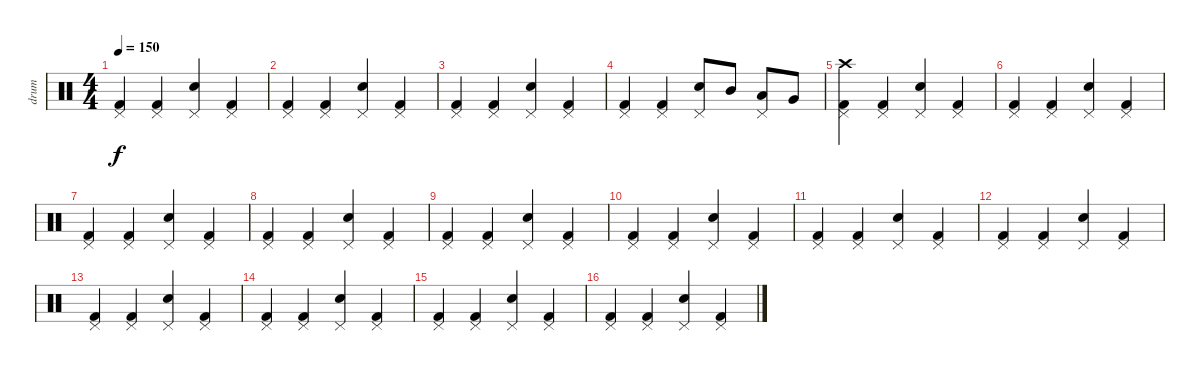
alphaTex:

\track ("drum" "drum") {instrument percussion}
\staff {score}
\articulation defaults
\ts (4 4)
\tempo 150
\clef neutral
\ks c
("Pedal Hi-Hat (hit)" "Kick (hit) 2").4{dy f} ("Pedal Hi-Hat (hit)" "Kick (hit) 2").4 ("Pedal Hi-Hat (hit)" "Electric Snare (hit)").4 ("Pedal Hi-Hat (hit)" "Kick (hit) 2").4 |
("Pedal Hi-Hat (hit)" "Kick (hit) 2").4 ("Pedal Hi-Hat (hit)" "Kick (hit) 2").4 ("Pedal Hi-Hat (hit)" "Electric Snare (hit)").4 ("Pedal Hi-Hat (hit)" "Kick (hit) 2").4 |
("Pedal Hi-Hat (hit)" "Kick (hit) 2").4 ("Pedal Hi-Hat (hit)" "Kick (hit) 2").4 ("Pedal Hi-Hat (hit)" "Electric Snare (hit)").4 ("Pedal Hi-Hat (hit)" "Kick (hit) 2").4 |
("Pedal Hi-Hat (hit)" "Kick (hit) 2").4 ("Pedal Hi-Hat (hit)" "Kick (hit) 2").4 ("Pedal Hi-Hat (hit)" "Electric Snare (hit)").8 "Mid Tom (hit)".8 ("Pedal Hi-Hat (hit)" "Low Tom (hit)").8 "Very Low Tom (hit)".8 |
("Crash high (hit)" "Pedal Hi-Hat (hit)" "Kick (hit) 2").4 ("Pedal Hi-Hat (hit)" "Kick (hit) 2").4 ("Pedal Hi-Hat (hit)" "Electric Snare (hit)").4 ("Pedal Hi-Hat (hit)" "Kick (hit) 2").4 |
("Pedal Hi-Hat (hit)" "Kick (hit) 2").4 ("Pedal Hi-Hat (hit)" "Kick (hit) 2").4 ("Pedal Hi-Hat (hit)" "Electric Snare (hit)").4 ("Pedal Hi-Hat (hit)" "Kick (hit) 2").4 |
("Pedal Hi-Hat (hit)" "Kick (hit) 2").4 ("Pedal Hi-Hat (hit)" "Kick (hit) 2").4 ("Pedal Hi-Hat (hit)" "Electric Snare (hit)").4 ("Pedal Hi-Hat (hit)" "Kick (hit) 2").4 |
("Pedal Hi-Hat (hit)" "Kick (hit) 2").4 ("Pedal Hi-Hat (hit)" "Kick (hit) 2").4 ("Pedal Hi-Hat (hit)" "Electric Snare (hit)").4 ("Pedal Hi-Hat (hit)" "Kick (hit) 2").4 |
("Pedal Hi-Hat (hit)" "Kick (hit) 2").4 ("Pedal Hi-Hat (hit)" "Kick (hit) 2").4 ("Pedal Hi-Hat (hit)" "Electric Snare (hit)").4 ("Pedal Hi-Hat (hit)" "Kick (hit) 2").4 |
("Pedal Hi-Hat (hit)" "Kick (hit) 2").4 ("Pedal Hi-Hat (hit)" "Kick (hit) 2").4 ("Pedal Hi-Hat (hit)" "Electric Snare (hit)").4 ("Pedal Hi-Hat (hit)" "Kick (hit) 2").4 |
("Pedal Hi-Hat (hit)" "Kick (hit) 2").4 ("Pedal Hi-Hat (hit)" "Kick (hit) 2").4 ("Pedal Hi-Hat (hit)" "Electric Snare (hit)").4 ("Pedal Hi-Hat (hit)" "Kick (hit) 2").4 |
("Pedal Hi-Hat (hit)" "Kick (hit) 2").4 ("Pedal Hi-Hat (hit)" "Kick (hit) 2").4 ("Pedal Hi-Hat (hit)" "Electric Snare (hit)").4 ("Pedal Hi-Hat (hit)" "Kick (hit) 2").4 |
("Pedal Hi-Hat (hit)" "Kick (hit) 2").4 ("Pedal Hi-Hat (hit)" "Kick (hit) 2").4 ("Pedal Hi-Hat (hit)" "Electric Snare (hit)").4 ("Pedal Hi-Hat (hit)" "Kick (hit) 2").4 |
("Pedal Hi-Hat (hit)" "Kick (hit) 2").4 ("Pedal Hi-Hat (hit)" "Kick (hit) 2").4 ("Pedal Hi-Hat (hit)" "Electric Snare (hit)").4 ("Pedal Hi-Hat (hit)" "Kick (hit) 2").4 |
("Pedal Hi-Hat (hit)" "Kick (hit) 2").4 ("Pedal Hi-Hat (hit)" "Kick (hit) 2").4 ("Pedal Hi-Hat (hit)" "Electric Snare (hit)").4 ("Pedal Hi-Hat (hit)" "Kick (hit) 2").4 |
("Pedal Hi-Hat (hit)" "Kick (hit) 2").4 ("Pedal Hi-Hat (hit)" "Kick (hit) 2").4 ("Pedal Hi-Hat (hit)" "Electric Snare (hit)").4 ("Pedal Hi-Hat (hit)" "Kick (hit) 2").4
